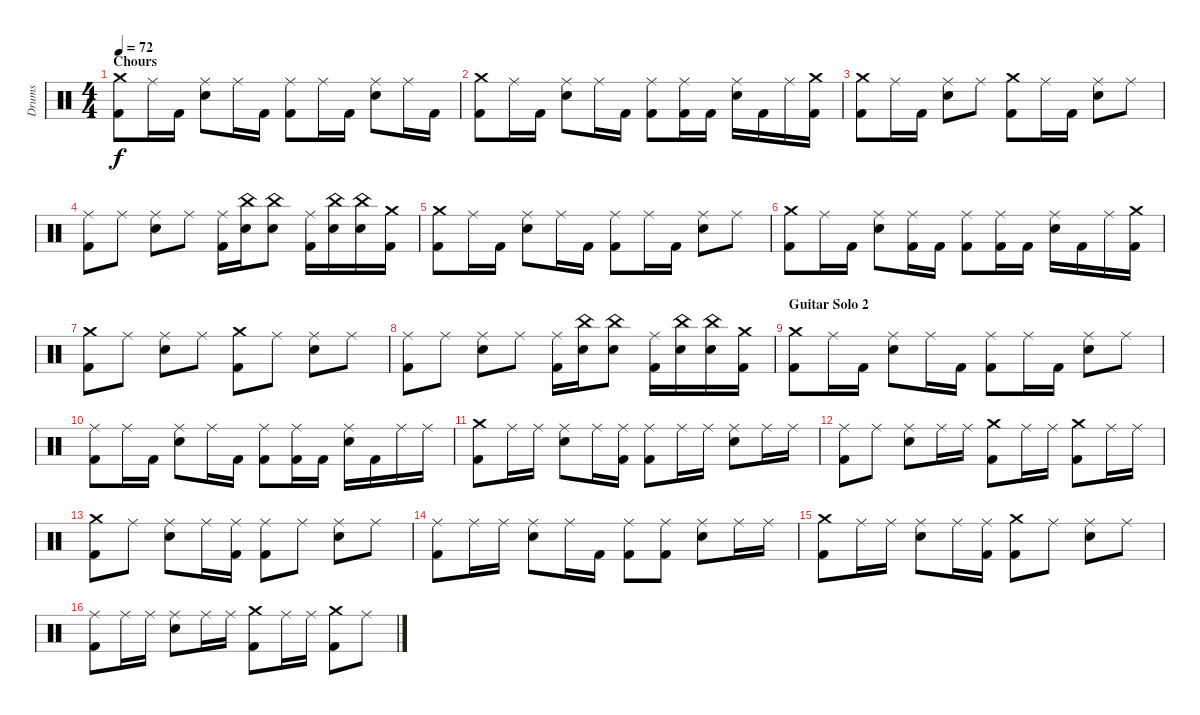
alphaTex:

\track ("Drums" "Drums") {instrument percussion}
\staff {score}
\articulation defaults
\ts (4 4)
\section ("" "Chours")
\tempo 72
\clef neutral
\ks c
("Crash medium (hit)" "Kick (hit) 2").8{dy f} "Ride (middle)".16 "Kick (hit) 2".16 ("Ride (middle)" "Snare (hit) 2").8 "Ride (middle)".16 "Kick (hit) 2".16 ("Ride (middle)" "Kick (hit) 2").8 "Ride (middle)".16 "Kick (hit) 2".16 ("Ride (middle)" "Snare (hit) 2").8 "Ride (middle)".16 "Kick (hit) 2".16 |
("Crash medium (hit)" "Kick (hit) 2").8 "Ride (middle)".16 "Kick (hit) 2".16 ("Ride (middle)" "Snare (hit) 2").8 "Ride (middle)".16 "Kick (hit) 2".16 ("Ride (middle)" "Kick (hit) 2").8 ("Ride (middle)" "Kick (hit) 2").16 "Kick (hit) 2".16 ("Ride (middle)" "Snare (hit) 2").16 "Kick (hit) 2".16 "Ride (middle)".16 ("Crash medium (hit)" "Kick (hit) 2").16 |
("Crash medium (hit)" "Kick (hit) 2").8 "Ride (middle)".16 "Kick (hit) 2".16 ("Ride (middle)" "Snare (hit) 2").8 "Ride (middle)".8 ("Crash medium (hit)" "Kick (hit) 2").8 "Ride (middle)".16 "Kick (hit) 2".16 ("Ride (middle)" "Snare (hit) 2").8 "Ride (middle)".8 |
("Ride (middle)" "Kick (hit) 2").8 "Ride (middle)".8 ("Ride (middle)" "Snare (hit) 2").8 "Ride (middle)".8 ("Ride (middle)" "Kick (hit) 2").16 ("China (hit)" "Snare (hit) 2").16 ("China (hit)" "Snare (hit) 2").8 ("Ride (middle)" "Kick (hit) 2").16 ("China (hit)" "Snare (hit) 2").16 ("China (hit)" "Snare (hit) 2").16 ("Crash medium (hit)" "Kick (hit) 2").16 |
("Crash medium (hit)" "Kick (hit) 2").8 "Ride (middle)".16 "Kick (hit) 2".16 ("Ride (middle)" "Snare (hit) 2").8 "Ride (middle)".16 "Kick (hit) 2".16 ("Ride (middle)" "Kick (hit) 2").8 "Ride (middle)".16 "Kick (hit) 2".16 ("Ride (middle)" "Snare (hit) 2").8 "Ride (middle)".8 |
("Crash medium (hit)" "Kick (hit) 2").8 "Ride (middle)".16 "Kick (hit) 2".16 ("Ride (middle)" "Snare (hit) 2").8 ("Ride (middle)" "Kick (hit) 2").16 "Kick (hit) 2".16 ("Ride (middle)" "Kick (hit) 2").8 ("Ride (middle)" "Kick (hit) 2").16 "Kick (hit) 2".16 ("Ride (middle)" "Snare (hit) 2").16 "Kick (hit) 2".16 "Ride (middle)".16 ("Crash medium (hit)" "Kick (hit) 2").16 |
("Crash medium (hit)" "Kick (hit) 2").8 "Ride (middle)".8 ("Ride (middle)" "Snare (hit) 2").8 "Ride (middle)".8 ("Crash medium (hit)" "Kick (hit) 2").8 "Ride (middle)".8 ("Ride (middle)" "Snare (hit) 2").8 "Ride (middle)".8 |
("Ride (middle)" "Kick (hit) 2").8 "Ride (middle)".8 ("Ride (middle)" "Snare (hit) 2").8 "Ride (middle)".8 ("Ride (middle)" "Kick (hit) 2").16 ("China (hit)" "Snare (hit) 2").16 ("China (hit)" "Snare (hit) 2").8 ("Ride (middle)" "Kick (hit) 2").16 ("China (hit)" "Snare (hit) 2").16 ("China (hit)" "Snare (hit) 2").16 ("Crash medium (hit)" "Kick (hit) 2").16 |
\section ("" "Guitar Solo 2")
("Crash medium (hit)" "Kick (hit) 2").8 "Ride (middle)".16 "Kick (hit) 2".16 ("Ride (middle)" "Snare (hit) 2").8 "Ride (middle)".16 "Kick (hit) 2".16 ("Ride (middle)" "Kick (hit) 2").8 "Ride (middle)".16 "Kick (hit) 2".16 ("Ride (middle)" "Snare (hit) 2").8 "Ride (middle)".8 |
("Ride (middle)" "Kick (hit) 2").8 "Ride (middle)".16 "Kick (hit) 2".16 ("Ride (middle)" "Snare (hit) 2").8 "Ride (middle)".16 "Kick (hit) 2".16 ("Ride (middle)" "Kick (hit) 2").8 ("Ride (middle)" "Kick (hit) 2").16 "Kick (hit) 2".16 ("Ride (middle)" "Snare (hit) 2").16 "Kick (hit) 2".16 "Ride (middle)".16 "Ride (middle)".16 |
("Crash medium (hit)" "Kick (hit) 2").8 "Ride (middle)".16 "Ride (middle)".16 ("Ride (middle)" "Snare (hit) 2").8 "Ride (middle)".16 ("Ride (middle)" "Kick (hit) 2").16 ("Ride (middle)" "Kick (hit) 2").8 "Ride (middle)".16 "Ride (middle)".16 ("Ride (middle)" "Snare (hit) 2").8 "Ride (middle)".16 "Ride (middle)".16 |
("Ride (middle)" "Kick (hit) 2").8 "Ride (middle)".8 ("Ride (middle)" "Snare (hit) 2").8 "Ride (middle)".16 "Ride (middle)".16 ("Crash medium (hit)" "Kick (hit) 2").8 "Ride (middle)".16 "Ride (middle)".16 ("Crash medium (hit)" "Kick (hit) 2").8 "Ride (middle)".16 "Ride (middle)".16 |
("Crash medium (hit)" "Kick (hit) 2").8 "Ride (middle)".8 ("Ride (middle)" "Snare (hit) 2").8 "Ride (middle)".16 ("Ride (middle)" "Kick (hit) 2").16 ("Ride (middle)" "Kick (hit) 2").8 "Ride (middle)".8 ("Ride (middle)" "Snare (hit) 2").8 "Ride (middle)".8 |
("Ride (middle)" "Kick (hit) 2").8 "Ride (middle)".16 "Ride (middle)".16 ("Ride (middle)" "Snare (hit) 2").8 "Ride (middle)".16 "Kick (hit) 2".16 ("Ride (middle)" "Kick (hit) 2").8 ("Ride (middle)" "Kick (hit) 2").8 ("Ride (middle)" "Snare (hit) 2").8 "Ride (middle)".16 "Ride (middle)".16 |
("Crash medium (hit)" "Kick (hit) 2").8 "Ride (middle)".16 "Ride (middle)".16 ("Ride (middle)" "Snare (hit) 2").8 "Ride (middle)".16 ("Ride (middle)" "Kick (hit) 2").16 ("Crash medium (hit)" "Kick (hit) 2").8 "Ride (middle)".8 ("Ride (middle)" "Snare (hit) 2").8 "Ride (middle)".8 |
("Ride (middle)" "Kick (hit) 2").8 "Ride (middle)".16 "Ride (middle)".16 ("Ride (middle)" "Snare (hit) 2").8 "Ride (middle)".16 "Ride (middle)".16 ("Crash medium (hit)" "Kick (hit) 2").8 "Ride (middle)".16 "Ride (middle)".16 ("Crash medium (hit)" "Kick (hit) 2").8 "Ride (middle)".8
